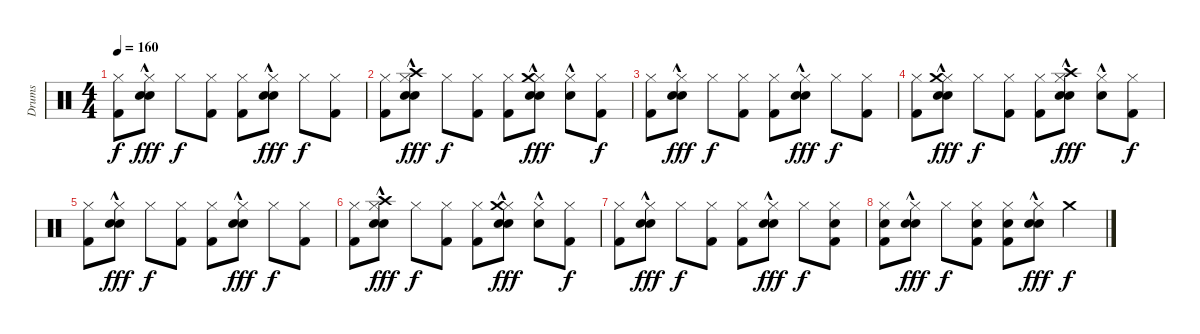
\track ("Drums" "Drums") {instrument percussion}
\staff {score}
\articulation defaults
\ts (4 4)
\tempo 160
\clef neutral
\ks c
("Hi-Hat (closed)" "Kick (hit) 2").8{dy f} ("Hi-Hat (closed)" "Electric Snare (hit)" "Hand Clap (hit)"{hac}).8{dy fff} "Hi-Hat (closed)".8{dy f} ("Hi-Hat (closed)" "Kick (hit) 2").8 ("Hi-Hat (closed)" "Kick (hit) 2").8 ("Hi-Hat (closed)" "Electric Snare (hit)" "Hand Clap (hit)"{hac}).8{dy fff} "Hi-Hat (closed)".8{dy f} ("Hi-Hat (closed)" "Kick (hit) 2").8 |
("Hi-Hat (closed)" "Kick (hit) 2").8 ("Hi-Hat (closed)" "Electric Snare (hit)" "Crash high (hit)" "Hand Clap (hit)"{hac}).8{dy fff} "Hi-Hat (closed)".8{dy f} ("Hi-Hat (closed)" "Kick (hit) 2").8 ("Hi-Hat (closed)" "Kick (hit) 2").8 ("Hi-Hat (closed)" "Electric Snare (hit)" "Crash medium (hit)" "Hand Clap (hit)"{hac}).8{dy fff} ("Hi-Hat (closed)" "Hand Clap (hit)"{hac}).8 ("Hi-Hat (closed)" "Kick (hit) 2").8{dy f} |
("Hi-Hat (closed)" "Kick (hit) 2").8 ("Hi-Hat (closed)" "Electric Snare (hit)" "Hand Clap (hit)"{hac}).8{dy fff} "Hi-Hat (closed)".8{dy f} ("Hi-Hat (closed)" "Kick (hit) 2").8 ("Hi-Hat (closed)" "Kick (hit) 2").8 ("Hi-Hat (closed)" "Electric Snare (hit)" "Hand Clap (hit)"{hac}).8{dy fff} "Hi-Hat (closed)".8{dy f} ("Hi-Hat (closed)" "Kick (hit) 2").8 |
("Hi-Hat (closed)" "Kick (hit) 2").8 ("Hi-Hat (closed)" "Electric Snare (hit)" "Crash medium (hit)" "Hand Clap (hit)"{hac}).8{dy fff} "Hi-Hat (closed)".8{dy f} ("Hi-Hat (closed)" "Kick (hit) 2").8 ("Hi-Hat (closed)" "Kick (hit) 2").8 ("Hi-Hat (closed)" "Electric Snare (hit)" "Crash high (hit)" "Hand Clap (hit)"{hac}).8{dy fff} ("Hi-Hat (closed)" "Hand Clap (hit)"{hac}).8 ("Hi-Hat (closed)" "Kick (hit) 2").8{dy f} |
("Hi-Hat (closed)" "Kick (hit) 2").8 ("Hi-Hat (closed)" "Electric Snare (hit)" "Hand Clap (hit)"{hac}).8{dy fff} "Hi-Hat (closed)".8{dy f} ("Hi-Hat (closed)" "Kick (hit) 2").8 ("Hi-Hat (closed)" "Kick (hit) 2").8 ("Hi-Hat (closed)" "Electric Snare (hit)" "Hand Clap (hit)"{hac}).8{dy fff} "Hi-Hat (closed)".8{dy f} ("Hi-Hat (closed)" "Kick (hit) 2").8 |
("Hi-Hat (closed)" "Kick (hit) 2").8 ("Hi-Hat (closed)" "Electric Snare (hit)" "Crash high (hit)" "Hand Clap (hit)"{hac}).8{dy fff} "Hi-Hat (closed)".8{dy f} ("Hi-Hat (closed)" "Kick (hit) 2").8 ("Hi-Hat (closed)" "Kick (hit) 2").8 ("Hi-Hat (closed)" "Electric Snare (hit)" "Crash medium (hit)" "Hand Clap (hit)"{hac}).8{dy fff} ("Hi-Hat (closed)" "Hand Clap (hit)"{hac}).8 ("Hi-Hat (closed)" "Kick (hit) 2").8{dy f} |
("Hi-Hat (closed)" "Kick (hit) 2").8 ("Hi-Hat (closed)" "Electric Snare (hit)" "Hand Clap (hit)"{hac}).8{dy fff} "Hi-Hat (closed)".8{dy f} ("Hi-Hat (closed)" "Kick (hit) 2").8 ("Hi-Hat (closed)" "Kick (hit) 2").8 ("Hi-Hat (closed)" "Electric Snare (hit)" "Hand Clap (hit)"{hac}).8{dy fff} "Hi-Hat (closed)".8{dy f} ("Hi-Hat (closed)" "Electric Snare (hit)" "Kick (hit) 2").8 |
("Hi-Hat (closed)" "Electric Snare (hit)" "Kick (hit) 2").8 ("Hi-Hat (closed)" "Electric Snare (hit)" "Hand Clap (hit)"{hac}).8{dy fff} "Hi-Hat (closed)".8{dy f} ("Hi-Hat (closed)" "Electric Snare (hit)" "Kick (hit) 2").8 ("Hi-Hat (closed)" "Electric Snare (hit)" "Kick (hit) 2").8 ("Hi-Hat (closed)" "Electric Snare (hit)" "Hand Clap (hit)"{hac}).8{dy fff} "Crash medium (hit)".4{dy f}
